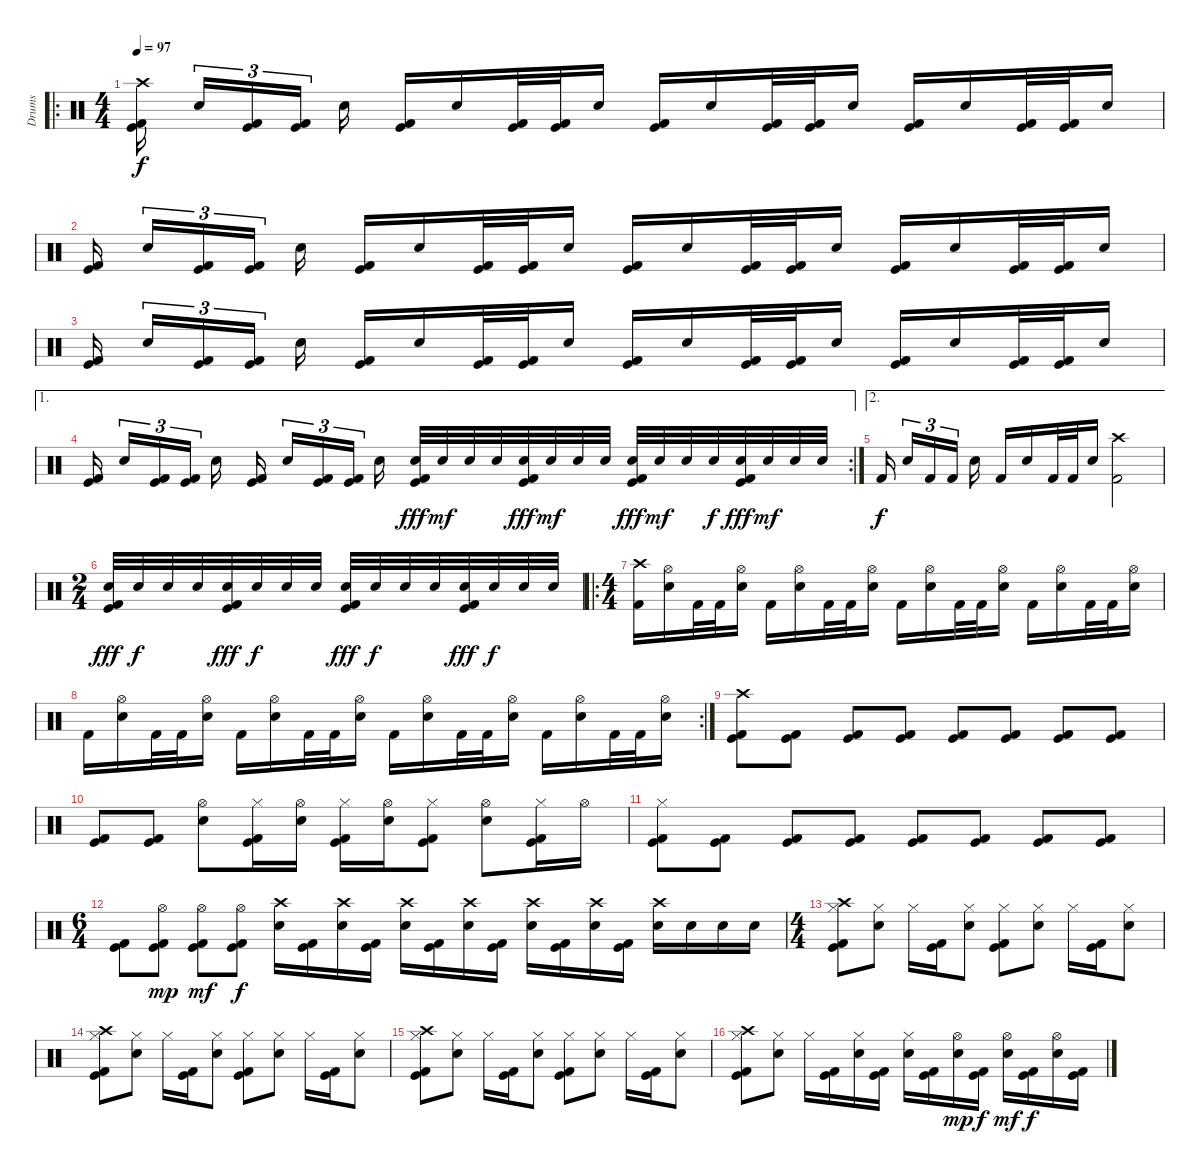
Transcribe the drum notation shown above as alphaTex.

\track ("Drums" "Drums") {instrument percussion}
\staff {score}
\articulation defaults
\ro
\ts (4 4)
\tempo 97
\clef neutral
\ks c
("Crash high (hit)" "Kick (hit) 2" "Kick (hit)").16{dy f} "Electric Snare (hit)".16{tu (3 2)} ("Kick (hit) 2" "Kick (hit)").16{tu (3 2)} ("Kick (hit) 2" "Kick (hit)").16{tu (3 2)} "Electric Snare (hit)".16 ("Kick (hit) 2" "Kick (hit)").16 "Electric Snare (hit)".16 ("Kick (hit) 2" "Kick (hit)").32 ("Kick (hit) 2" "Kick (hit)").32 "Electric Snare (hit)".16 ("Kick (hit) 2" "Kick (hit)").16 "Electric Snare (hit)".16 ("Kick (hit) 2" "Kick (hit)").32 ("Kick (hit) 2" "Kick (hit)").32 "Electric Snare (hit)".16 ("Kick (hit) 2" "Kick (hit)").16 "Electric Snare (hit)".16 ("Kick (hit) 2" "Kick (hit)").32 ("Kick (hit) 2" "Kick (hit)").32 "Electric Snare (hit)".16 |
("Kick (hit) 2" "Kick (hit)").16 "Electric Snare (hit)".16{tu (3 2)} ("Kick (hit) 2" "Kick (hit)").16{tu (3 2)} ("Kick (hit) 2" "Kick (hit)").16{tu (3 2)} "Electric Snare (hit)".16 ("Kick (hit) 2" "Kick (hit)").16 "Electric Snare (hit)".16 ("Kick (hit) 2" "Kick (hit)").32 ("Kick (hit) 2" "Kick (hit)").32 "Electric Snare (hit)".16 ("Kick (hit) 2" "Kick (hit)").16 "Electric Snare (hit)".16 ("Kick (hit) 2" "Kick (hit)").32 ("Kick (hit) 2" "Kick (hit)").32 "Electric Snare (hit)".16 ("Kick (hit) 2" "Kick (hit)").16 "Electric Snare (hit)".16 ("Kick (hit) 2" "Kick (hit)").32 ("Kick (hit) 2" "Kick (hit)").32 "Electric Snare (hit)".16 |
("Kick (hit) 2" "Kick (hit)").16 "Electric Snare (hit)".16{tu (3 2)} ("Kick (hit) 2" "Kick (hit)").16{tu (3 2)} ("Kick (hit) 2" "Kick (hit)").16{tu (3 2)} "Electric Snare (hit)".16 ("Kick (hit) 2" "Kick (hit)").16 "Electric Snare (hit)".16 ("Kick (hit) 2" "Kick (hit)").32 ("Kick (hit) 2" "Kick (hit)").32 "Electric Snare (hit)".16 ("Kick (hit) 2" "Kick (hit)").16 "Electric Snare (hit)".16 ("Kick (hit) 2" "Kick (hit)").32 ("Kick (hit) 2" "Kick (hit)").32 "Electric Snare (hit)".16 ("Kick (hit) 2" "Kick (hit)").16 "Electric Snare (hit)".16 ("Kick (hit) 2" "Kick (hit)").32 ("Kick (hit) 2" "Kick (hit)").32 "Electric Snare (hit)".16 |
\ae 1
\rc 2
("Kick (hit) 2" "Kick (hit)").16 "Electric Snare (hit)".16{tu (3 2)} ("Kick (hit) 2" "Kick (hit)").16{tu (3 2)} ("Kick (hit) 2" "Kick (hit)").16{tu (3 2)} "Electric Snare (hit)".16 ("Kick (hit) 2" "Kick (hit)").16 "Electric Snare (hit)".16{tu (3 2)} ("Kick (hit) 2" "Kick (hit)").16{tu (3 2)} ("Kick (hit) 2" "Kick (hit)").16{tu (3 2)} "Electric Snare (hit)".16 ("Electric Snare (hit)" "Kick (hit) 2" "Kick (hit)").32{dy fff} "Electric Snare (hit)".32{dy mf} "Electric Snare (hit)".32 "Electric Snare (hit)".32 ("Electric Snare (hit)" "Kick (hit) 2" "Kick (hit)").32{dy fff} "Electric Snare (hit)".32{dy mf} "Electric Snare (hit)".32 "Electric Snare (hit)".32 ("Electric Snare (hit)" "Kick (hit) 2" "Kick (hit)").32{dy fff} "Electric Snare (hit)".32{dy mf} "Electric Snare (hit)".32 "Electric Snare (hit)".32{dy f} ("Electric Snare (hit)" "Kick (hit) 2" "Kick (hit)").32{dy fff} "Electric Snare (hit)".32{dy mf} "Electric Snare (hit)".32 "Electric Snare (hit)".32 |
\ae 2 "Kick (hit) 2".16{dy f} "Electric Snare (hit)".16{tu (3 2)} "Kick (hit) 2".16{tu (3 2)} "Kick (hit) 2".16{tu (3 2)} "Electric Snare (hit)".16 "Kick (hit) 2".16 "Electric Snare (hit)".16 "Kick (hit) 2".32 "Kick (hit) 2".32 "Electric Snare (hit)".16
("Crash high (hit)" "Kick (hit) 2").2 |
\ts (2 4)
("Electric Snare (hit)" "Kick (hit) 2" "Kick (hit)").32{dy fff} "Electric Snare (hit)".32{dy f} "Electric Snare (hit)".32 "Electric Snare (hit)".32 ("Electric Snare (hit)" "Kick (hit) 2" "Kick (hit)").32{dy fff} "Electric Snare (hit)".32{dy f} "Electric Snare (hit)".32 "Electric Snare (hit)".32 ("Electric Snare (hit)" "Kick (hit) 2" "Kick (hit)").32{dy fff} "Electric Snare (hit)".32{dy f} "Electric Snare (hit)".32 "Electric Snare (hit)".32 ("Electric Snare (hit)" "Kick (hit) 2" "Kick (hit)").32{dy fff} "Electric Snare (hit)".32{dy f} "Electric Snare (hit)".32 "Electric Snare (hit)".32 |
\ro
\ts (4 4)
("Crash high (hit)" "Kick (hit) 2").16 ("Hi-Hat (open)" "Electric Snare (hit)").16 "Kick (hit) 2".32 "Kick (hit) 2".32 ("Hi-Hat (open)" "Electric Snare (hit)").16 "Kick (hit) 2".16 ("Hi-Hat (open)" "Electric Snare (hit)").16 "Kick (hit) 2".32 "Kick (hit) 2".32 ("Hi-Hat (open)" "Electric Snare (hit)").16 "Kick (hit) 2".16 ("Hi-Hat (open)" "Electric Snare (hit)").16 "Kick (hit) 2".32 "Kick (hit) 2".32 ("Hi-Hat (open)" "Electric Snare (hit)").16 "Kick (hit) 2".16 ("Hi-Hat (open)" "Electric Snare (hit)").16 "Kick (hit) 2".32 "Kick (hit) 2".32 ("Hi-Hat (open)" "Electric Snare (hit)").16 |
\rc 2 "Kick (hit) 2".16
("Hi-Hat (open)" "Electric Snare (hit)").16 "Kick (hit) 2".32 "Kick (hit) 2".32 ("Hi-Hat (open)" "Electric Snare (hit)").16 "Kick (hit) 2".16 ("Hi-Hat (open)" "Electric Snare (hit)").16 "Kick (hit) 2".32 "Kick (hit) 2".32 ("Hi-Hat (open)" "Electric Snare (hit)").16 "Kick (hit) 2".16 ("Hi-Hat (open)" "Electric Snare (hit)").16 "Kick (hit) 2".32 "Kick (hit) 2".32 ("Hi-Hat (open)" "Electric Snare (hit)").16 "Kick (hit) 2".16 ("Hi-Hat (open)" "Electric Snare (hit)").16 "Kick (hit) 2".32 "Kick (hit) 2".32 ("Hi-Hat (open)" "Electric Snare (hit)").16 |
("Crash high (hit)" "Kick (hit)" "Kick (hit) 2").8 ("Kick (hit)" "Kick (hit) 2").8 ("Kick (hit)" "Kick (hit) 2").8 ("Kick (hit)" "Kick (hit) 2").8 ("Kick (hit)" "Kick (hit) 2").8 ("Kick (hit)" "Kick (hit) 2").8 ("Kick (hit)" "Kick (hit) 2").8 ("Kick (hit)" "Kick (hit) 2").8 |
("Kick (hit)" "Kick (hit) 2").8 ("Kick (hit) 2" "Kick (hit)").8 ("Hi-Hat (open)" "Electric Snare (hit)").8 ("Hi-Hat (closed)" "Kick (hit) 2" "Kick (hit)").16 ("Hi-Hat (open)" "Electric Snare (hit)").16 ("Hi-Hat (closed)" "Kick (hit) 2" "Kick (hit)").16 ("Hi-Hat (open)" "Electric Snare (hit)").16 ("Hi-Hat (closed)" "Kick (hit) 2" "Kick (hit)").8 ("Hi-Hat (open)" "Electric Snare (hit)").8 ("Hi-Hat (closed)" "Kick (hit) 2" "Kick (hit)").16 "Hi-Hat (open)".16 |
("Hi-Hat (closed)" "Kick (hit)" "Kick (hit) 2").8 ("Kick (hit)" "Kick (hit) 2").8 ("Kick (hit)" "Kick (hit) 2").8 ("Kick (hit)" "Kick (hit) 2").8 ("Kick (hit)" "Kick (hit) 2").8 ("Kick (hit)" "Kick (hit) 2").8 ("Kick (hit)" "Kick (hit) 2").8 ("Kick (hit)" "Kick (hit) 2").8 |
\ts (6 4)
("Kick (hit)" "Kick (hit) 2").8 ("Hi-Hat (open)" "Kick (hit)" "Kick (hit) 2").8{dy mp} ("Hi-Hat (open)" "Kick (hit)" "Kick (hit) 2").8{dy mf} ("Hi-Hat (open)" "Kick (hit)" "Kick (hit) 2").8{dy f} ("Crash high (hit)" "Electric Snare (hit)").16 ("Kick (hit)" "Kick (hit) 2").16 ("Crash high (hit)" "Electric Snare (hit)").16 ("Kick (hit)" "Kick (hit) 2").16 ("Crash high (hit)" "Electric Snare (hit)").16 ("Kick (hit)" "Kick (hit) 2").16 ("Crash high (hit)" "Electric Snare (hit)").16 ("Kick (hit)" "Kick (hit) 2").16 ("Crash high (hit)" "Electric Snare (hit)").16 ("Kick (hit)" "Kick (hit) 2").16 ("Crash high (hit)" "Electric Snare (hit)").16 ("Kick (hit)" "Kick (hit) 2").16 ("Crash high (hit)" "Electric Snare (hit)").16 "Electric Snare (hit)".16 "Electric Snare (hit)".16 "Electric Snare (hit)".16 |
\ts (4 4)
("Hi-Hat (closed)" "Crash high (hit)" "Kick (hit) 2" "Kick (hit)").8 ("Hi-Hat (closed)" "Electric Snare (hit)").8 "Hi-Hat (closed)".16 ("Kick (hit)" "Kick (hit) 2").16 ("Hi-Hat (closed)" "Electric Snare (hit)").8 ("Hi-Hat (closed)" "Kick (hit)" "Kick (hit) 2").8 ("Hi-Hat (closed)" "Electric Snare (hit)").8 "Hi-Hat (closed)".16 ("Kick (hit) 2" "Kick (hit)").16 ("Hi-Hat (closed)" "Electric Snare (hit)").8 |
("Hi-Hat (closed)" "Crash high (hit)" "Kick (hit) 2" "Kick (hit)").8 ("Hi-Hat (closed)" "Electric Snare (hit)").8 "Hi-Hat (closed)".16 ("Kick (hit)" "Kick (hit) 2").16 ("Hi-Hat (closed)" "Electric Snare (hit)").8 ("Hi-Hat (closed)" "Kick (hit)" "Kick (hit) 2").8 ("Hi-Hat (closed)" "Electric Snare (hit)").8 "Hi-Hat (closed)".16 ("Kick (hit) 2" "Kick (hit)").16 ("Hi-Hat (closed)" "Electric Snare (hit)").8 |
("Hi-Hat (closed)" "Crash high (hit)" "Kick (hit) 2" "Kick (hit)").8 ("Hi-Hat (closed)" "Electric Snare (hit)").8 "Hi-Hat (closed)".16 ("Kick (hit)" "Kick (hit) 2").16 ("Hi-Hat (closed)" "Electric Snare (hit)").8 ("Hi-Hat (closed)" "Kick (hit)" "Kick (hit) 2").8 ("Hi-Hat (closed)" "Electric Snare (hit)").8 "Hi-Hat (closed)".16 ("Kick (hit) 2" "Kick (hit)").16 ("Hi-Hat (closed)" "Electric Snare (hit)").8 |
("Hi-Hat (closed)" "Crash high (hit)" "Kick (hit) 2" "Kick (hit)").8 ("Hi-Hat (closed)" "Electric Snare (hit)").8 "Hi-Hat (closed)".16 ("Kick (hit)" "Kick (hit) 2").16 ("Hi-Hat (closed)" "Electric Snare (hit)").16 ("Kick (hit)" "Kick (hit) 2").16 ("Hi-Hat (closed)" "Electric Snare (hit)").16 ("Kick (hit)" "Kick (hit) 2").16 ("Hi-Hat (open)" "Electric Snare (hit)").16{dy mp} ("Kick (hit)" "Kick (hit) 2").16{dy f} ("Hi-Hat (open)" "Electric Snare (hit)").16{dy mf} ("Kick (hit)" "Kick (hit) 2").16{dy f} ("Hi-Hat (open)" "Electric Snare (hit)").16 ("Kick (hit)" "Kick (hit) 2").16
